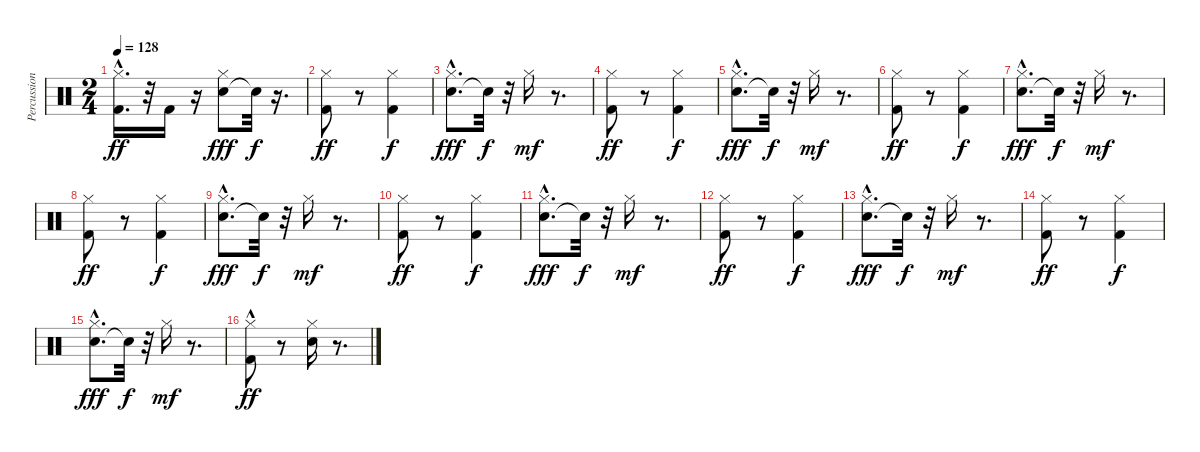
\track ("Percussion" "Percussion") {instrument percussion}
\staff {score}
\articulation defaults
\ts (2 4)
\tempo 128
\clef neutral
\ks c
("Hi-Hat (closed)" "Kick (hit) 2"{hac}).16{d dy ff} r.32 "Kick (hit) 2".16 r.16 ("Electric Snare (hit)" "Hi-Hat (closed)").8{dy fff} "Snare (hit)"{t}.32{dy f} r.16{d} |
("Hi-Hat (closed)" "Kick (hit) 2").8{dy ff} r.8 ("Kick (hit) 2" "Hi-Hat (closed)").4{dy f} |
("Electric Snare (hit)"{hac} "Hi-Hat (closed)").8{d dy fff} "Snare (hit)"{t}.32{dy f} r.32 "Hi-Hat (closed)".16{dy mf} r.8{d} |
("Hi-Hat (closed)" "Kick (hit) 2").8{dy ff} r.8 ("Kick (hit) 2" "Hi-Hat (closed)").4{dy f} |
("Electric Snare (hit)"{hac} "Hi-Hat (closed)").8{d dy fff} "Snare (hit)"{t}.32{dy f} r.32 "Hi-Hat (closed)".16{dy mf} r.8{d} |
("Hi-Hat (closed)" "Kick (hit) 2").8{dy ff} r.8 ("Kick (hit) 2" "Hi-Hat (closed)").4{dy f} |
("Electric Snare (hit)"{hac} "Hi-Hat (closed)").8{d dy fff} "Snare (hit)"{t}.32{dy f} r.32 "Hi-Hat (closed)".16{dy mf} r.8{d} |
("Hi-Hat (closed)" "Kick (hit) 2").8{dy ff} r.8 ("Kick (hit) 2" "Hi-Hat (closed)").4{dy f} |
("Electric Snare (hit)"{hac} "Hi-Hat (closed)").8{d dy fff} "Snare (hit)"{t}.32{dy f} r.32 "Hi-Hat (closed)".16{dy mf} r.8{d} |
("Hi-Hat (closed)" "Kick (hit) 2").8{dy ff} r.8 ("Kick (hit) 2" "Hi-Hat (closed)").4{dy f} |
("Electric Snare (hit)"{hac} "Hi-Hat (closed)").8{d dy fff} "Snare (hit)"{t}.32{dy f} r.32 "Hi-Hat (closed)".16{dy mf} r.8{d} |
("Hi-Hat (closed)" "Kick (hit) 2").8{dy ff} r.8 ("Kick (hit) 2" "Hi-Hat (closed)").4{dy f} |
("Electric Snare (hit)"{hac} "Hi-Hat (closed)").8{d dy fff} "Snare (hit)"{t}.32{dy f} r.32 "Hi-Hat (closed)".16{dy mf} r.8{d} |
("Hi-Hat (closed)" "Kick (hit) 2").8{dy ff} r.8 ("Kick (hit) 2" "Hi-Hat (closed)").4{dy f} |
("Electric Snare (hit)"{hac} "Hi-Hat (closed)").8{d dy fff} "Snare (hit)"{t}.32{dy f} r.32 "Hi-Hat (closed)".16{dy mf} r.8{d} |
("Hi-Hat (closed)"{hac} "Kick (hit) 2").8{dy ff} r.8 ("Hi-Hat (closed)" "Electric Snare (hit)").16 r.8{d}
